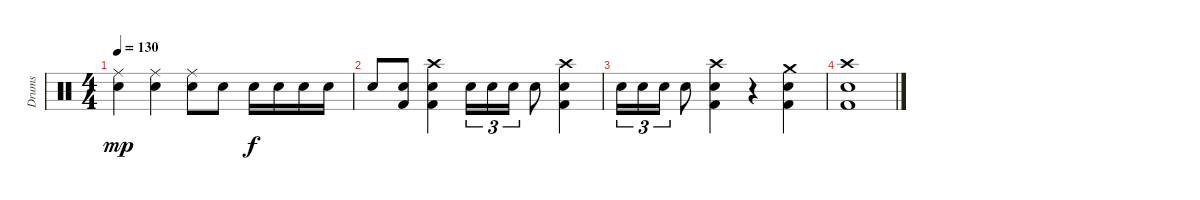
\track ("Drums" "Drums") {instrument percussion}
\staff {score}
\articulation defaults
\ts (4 4)
\tempo 130
\clef neutral
\ks c
("Ride (middle)" "Electric Snare (hit)").4{dy mp} ("Ride (middle)" "Electric Snare (hit)").4 ("Ride (middle)" "Electric Snare (hit)").8 "Electric Snare (hit)".8 "Electric Snare (hit)".16{dy f} "Electric Snare (hit)".16 "Electric Snare (hit)".16 "Electric Snare (hit)".16 |
"Electric Snare (hit)".8 ("Electric Snare (hit)" "Kick (hit) 2").8 ("Crash high (hit)" "Electric Snare (hit)" "Kick (hit) 2").4 "Snare (hit) 2".16{tu (3 2)} "Snare (hit) 2".16{tu (3 2)} "Snare (hit) 2".16{tu (3 2)} "Electric Snare (hit)".8 ("Crash high (hit)" "Electric Snare (hit)" "Kick (hit) 2").4 |
"Snare (hit) 2".16{tu (3 2)} "Snare (hit) 2".16{tu (3 2)} "Snare (hit) 2".16{tu (3 2)} "Electric Snare (hit)".8 ("Crash high (hit)" "Electric Snare (hit)" "Kick (hit) 2").4 r.4 ("Crash medium (hit)" "Electric Snare (hit)" "Kick (hit) 2").4 |
("Crash high (hit)" "Electric Snare (hit)" "Kick (hit) 2").1
